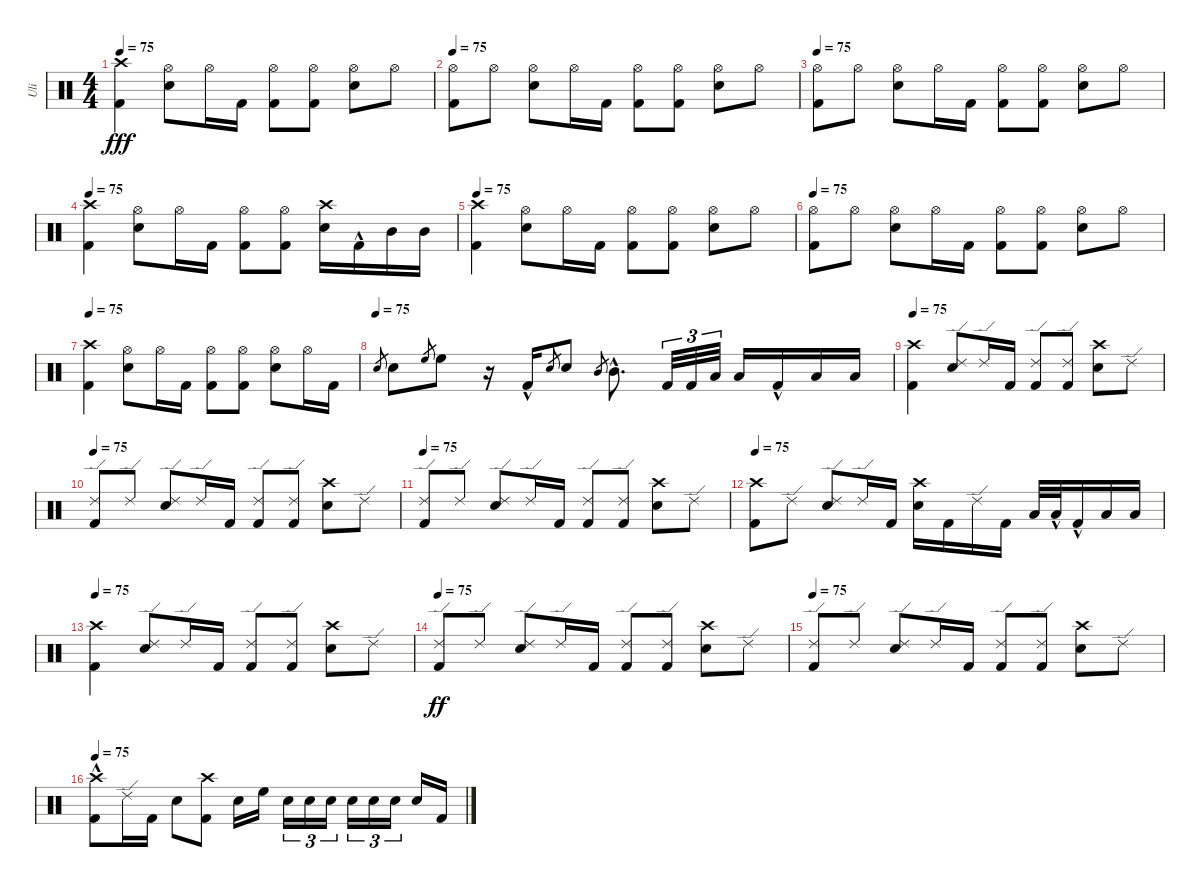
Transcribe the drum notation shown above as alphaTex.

\track ("Uli" "Uli") {instrument percussion}
\staff {score}
\articulation defaults
\ts (4 4)
\tempo 75
\clef neutral
\ks c
("Kick (hit) 2" "Crash high (hit)").4{dy fff} ("Electric Snare (hit)" "Hi-Hat (open)").8 "Hi-Hat (open)".16 "Kick (hit) 2".16 ("Kick (hit) 2" "Hi-Hat (open)").8 ("Kick (hit) 2" "Hi-Hat (open)").8 ("Electric Snare (hit)" "Hi-Hat (open)").8 "Hi-Hat (open)".8 |
\tempo 75
("Kick (hit) 2" "Hi-Hat (open)").8 "Hi-Hat (open)".8 ("Electric Snare (hit)" "Hi-Hat (open)").8 "Hi-Hat (open)".16 "Kick (hit) 2".16 ("Kick (hit) 2" "Hi-Hat (open)").8 ("Kick (hit) 2" "Hi-Hat (open)").8 ("Electric Snare (hit)" "Hi-Hat (open)").8 "Hi-Hat (open)".8 |
\tempo 75
("Kick (hit) 2" "Hi-Hat (open)").8 "Hi-Hat (open)".8 ("Electric Snare (hit)" "Hi-Hat (open)").8 "Hi-Hat (open)".16 "Kick (hit) 2".16 ("Kick (hit) 2" "Hi-Hat (open)").8 ("Kick (hit) 2" "Hi-Hat (open)").8 ("Electric Snare (hit)" "Hi-Hat (open)").8 "Hi-Hat (open)".8 |
\tempo 75
("Kick (hit) 2" "Crash high (hit)").4 ("Electric Snare (hit)" "Hi-Hat (open)").8 "Hi-Hat (open)".16 "Kick (hit) 2".16 ("Kick (hit) 2" "Hi-Hat (open)").8 ("Kick (hit) 2" "Hi-Hat (open)").8 ("Crash high (hit)" "Electric Snare (hit)").16 "Kick (hit) 2"{hac}.16 "Mid Tom (hit)".16 "Mid Tom (hit)".16 |
\tempo 75
("Kick (hit) 2" "Crash high (hit)").4 ("Electric Snare (hit)" "Hi-Hat (open)").8 "Hi-Hat (open)".16 "Kick (hit) 2".16 ("Kick (hit) 2" "Hi-Hat (open)").8 ("Kick (hit) 2" "Hi-Hat (open)").8 ("Electric Snare (hit)" "Hi-Hat (open)").8 "Hi-Hat (open)".8 |
\tempo 75
("Kick (hit) 2" "Hi-Hat (open)").8 "Hi-Hat (open)".8 ("Electric Snare (hit)" "Hi-Hat (open)").8 "Hi-Hat (open)".16 "Kick (hit) 2".16 ("Kick (hit) 2" "Hi-Hat (open)").8 ("Kick (hit) 2" "Hi-Hat (open)").8 ("Electric Snare (hit)" "Hi-Hat (open)").8 "Hi-Hat (open)".8 |
\tempo 75
("Kick (hit) 2" "Crash high (hit)").4 ("Electric Snare (hit)" "Hi-Hat (open)").8 "Hi-Hat (open)".16 "Kick (hit) 2".16 ("Kick (hit) 2" "Hi-Hat (open)").8 ("Kick (hit) 2" "Hi-Hat (open)").8 ("Electric Snare (hit)" "Hi-Hat (open)").8 "Hi-Hat (open)".16 "Kick (hit) 2".16 |
\tempo (75)
"Electric Snare (hit)".8{gr} "Electric Snare (hit)".8 "High Floor Tom (hit)".8{gr} "High Floor Tom (hit)".8 r.16 "Kick (hit) 2"{hac}.16 "Electric Snare (hit)".8{gr} "Electric Snare (hit)".8 "Mid Tom (hit)".8{gr} "Mid Tom (hit)"{hac}.8{d} "Kick (hit) 2".32{tu (3 2)} "Kick (hit) 2".32{tu (3 2)} "Low Floor Tom (hit)".32{tu (3 2)} "Low Tom (hit)".16 "Kick (hit) 2"{hac}.16 "Low Floor Tom (hit)".16 "Low Floor Tom (hit)".16 |
\tempo 75
("Kick (hit) 2" "Crash high (hit)").4 ("Electric Snare (hit)" "Ride (edge) 2").8 "Ride (edge) 2".16 "Kick (hit) 2".16 ("Kick (hit) 2" "Ride (edge) 2").8 ("Kick (hit) 2" "Ride (edge) 2").8 ("Electric Snare (hit)" "Crash high (hit)").8 "Ride (edge) 2".8 |
\tempo 75
("Kick (hit) 2" "Ride (edge) 2").8 "Ride (edge) 2".8 ("Electric Snare (hit)" "Ride (edge) 2").8 "Ride (edge) 2".16 "Kick (hit) 2".16 ("Kick (hit) 2" "Ride (edge) 2").8 ("Kick (hit) 2" "Ride (edge) 2").8 ("Electric Snare (hit)" "Crash high (hit)").8 "Ride (edge) 2".8 |
\tempo 75
("Kick (hit) 2" "Ride (edge) 2").8 "Ride (edge) 2".8 ("Electric Snare (hit)" "Ride (edge) 2").8 "Ride (edge) 2".16 "Kick (hit) 2".16 ("Kick (hit) 2" "Ride (edge) 2").8 ("Kick (hit) 2" "Ride (edge) 2").8 ("Electric Snare (hit)" "Crash high (hit)").8 "Ride (edge) 2".8 |
\tempo 75
("Kick (hit) 2" "Crash high (hit)").8 "Ride (edge) 2".8 ("Electric Snare (hit)" "Ride (edge) 2").8 "Ride (edge) 2".16 "Kick (hit) 2".16 ("Crash high (hit)" "Electric Snare (hit)").16 "Kick (hit) 2".16 "Ride (edge) 2".16 "Kick (hit) 2".16 "Low Tom (hit)".32 "Low Tom (hit)"{hac}.32 "Kick (hit) 2"{hac}.16 "Low Floor Tom (hit)".16 "Low Floor Tom (hit)".16 |
\tempo 75
("Kick (hit) 2" "Crash high (hit)").4 ("Electric Snare (hit)" "Ride (edge) 2").8 "Ride (edge) 2".16 "Kick (hit) 2".16 ("Kick (hit) 2" "Ride (edge) 2").8 ("Kick (hit) 2" "Ride (edge) 2").8 ("Electric Snare (hit)" "Crash high (hit)").8 "Ride (edge) 2".8 |
\tempo 75
("Kick (hit) 2" "Ride (edge) 2").8{dy ff} "Ride (edge) 2".8 ("Electric Snare (hit)" "Ride (edge) 2").8 "Ride (edge) 2".16 "Kick (hit) 2".16 ("Kick (hit) 2" "Ride (edge) 2").8 ("Kick (hit) 2" "Ride (edge) 2").8 ("Electric Snare (hit)" "Crash high (hit)").8 "Ride (edge) 2".8 |
\tempo 75
("Kick (hit) 2" "Ride (edge) 2").8 "Ride (edge) 2".8 ("Electric Snare (hit)" "Ride (edge) 2").8 "Ride (edge) 2".16 "Kick (hit) 2".16 ("Kick (hit) 2" "Ride (edge) 2").8 ("Kick (hit) 2" "Ride (edge) 2").8 ("Electric Snare (hit)" "Crash high (hit)").8 "Ride (edge) 2".8 |
\tempo 75
("Crash high (hit)" "Kick (hit) 2"{hac}).8 "Ride (edge) 2".16 "Kick (hit) 2".16 "Electric Snare (hit)".8 ("Kick (hit) 2" "Crash high (hit)").8 "Electric Snare (hit)".16 "High Floor Tom (hit)".16 "Electric Snare (hit)".16{tu (3 2)} "Electric Snare (hit)".16{tu (3 2)} "Electric Snare (hit)".16{tu (3 2)} "Electric Snare (hit)".16{tu (3 2)} "Electric Snare (hit)".16{tu (3 2)} "Electric Snare (hit)".16{tu (3 2)} "Electric Snare (hit)".16 "Kick (hit) 2".16
